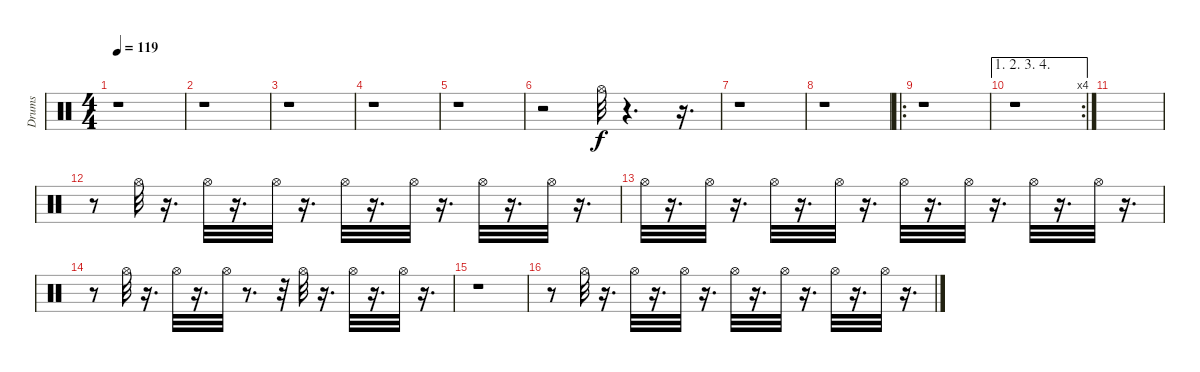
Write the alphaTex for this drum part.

\track ("Drums" "Drums") {instrument percussion}
\staff {score}
\articulation defaults
\ts (4 4)
\tempo 119
\clef neutral
\ks c
r.1{dy f} |
r.1 |
r.1 |
r.1 |
r.1 |
r.2 "Hi-Hat (open)".32 r.4{d} r.16{d} |
r.1 |
r.1 |
\ro
r.1 |
\ae (1 2 3 4)
\rc 4
r.1 |
|
r.8 "Hi-Hat (open)".32 r.16{d} "Hi-Hat (open)".32 r.16{d} "Hi-Hat (open)".32 r.16{d} "Hi-Hat (open)".32 r.16{d} "Hi-Hat (open)".32 r.16{d} "Hi-Hat (open)".32 r.16{d} "Hi-Hat (open)".32 r.16{d} |
"Hi-Hat (open)".32 r.16{d} "Hi-Hat (open)".32 r.16{d} "Hi-Hat (open)".32 r.16{d} "Hi-Hat (open)".32 r.16{d} "Hi-Hat (open)".32 r.16{d} "Hi-Hat (open)".32 r.16{d} "Hi-Hat (open)".32 r.16{d} "Hi-Hat (open)".32 r.16{d} |
r.8 "Hi-Hat (open)".32 r.16{d} "Hi-Hat (open)".32 r.16{d} "Hi-Hat (open)".32 r.8{d} r.32 "Hi-Hat (open)".32 r.16{d} "Hi-Hat (open)".32 r.16{d} "Hi-Hat (open)".32 r.16{d} |
r.1 |
r.8 "Hi-Hat (open)".32 r.16{d} "Hi-Hat (open)".32 r.16{d} "Hi-Hat (open)".32 r.16{d} "Hi-Hat (open)".32 r.16{d} "Hi-Hat (open)".32 r.16{d} "Hi-Hat (open)".32 r.16{d} "Hi-Hat (open)".32 r.16{d}
